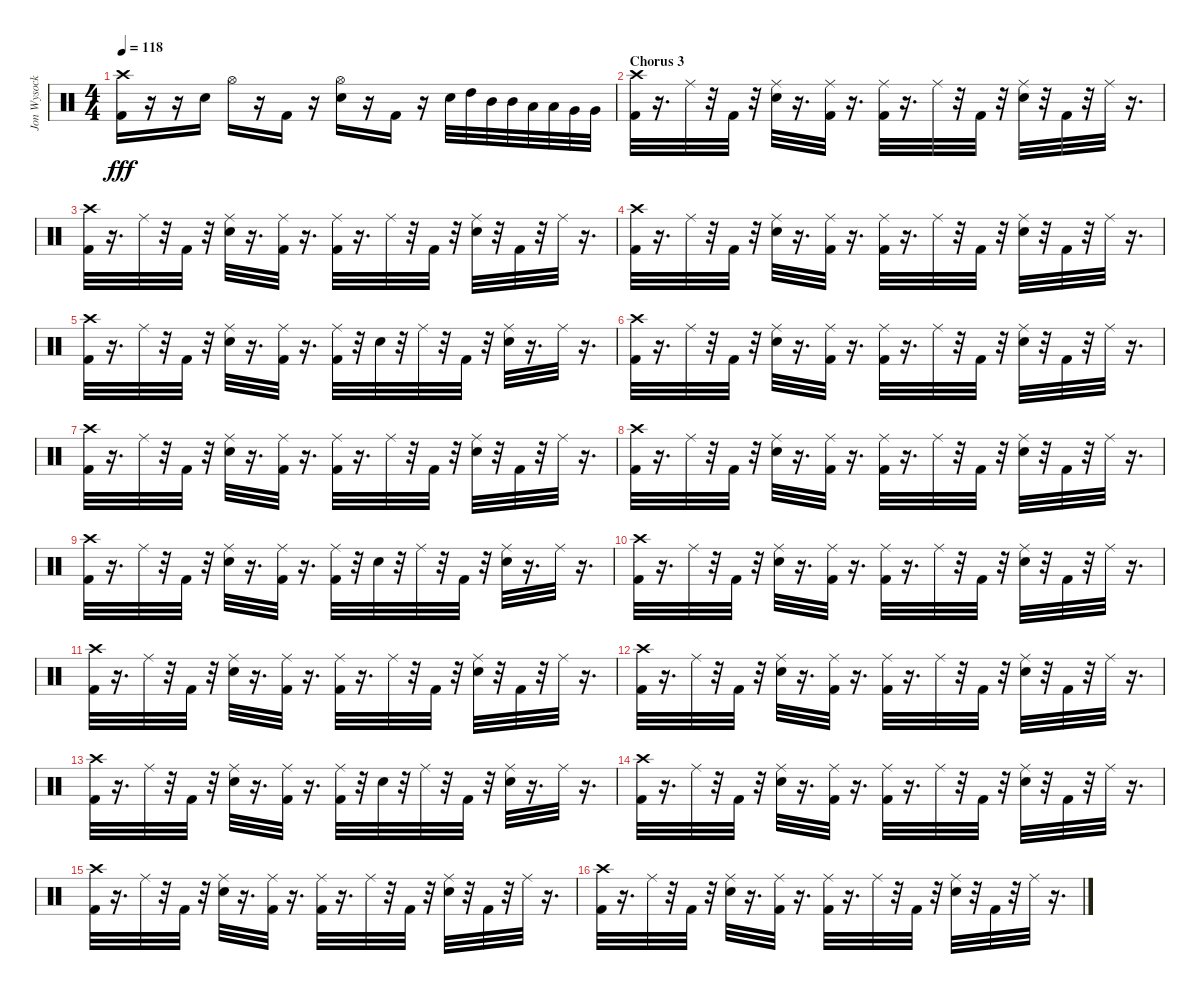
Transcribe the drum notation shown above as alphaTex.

\track ("Jon Wysocki - Drums" "Jon Wysock") {instrument percussion}
\staff {score}
\articulation defaults
\ts (4 4)
\tempo 118
\clef neutral
\ks c
("Crash high (hit)" "Kick (hit) 2").16{dy fff} r.16 r.16 "Electric Snare (hit)".16 "Hi-Hat (open)".16 r.16 "Kick (hit) 2".16 r.16 ("Hi-Hat (open)" "Electric Snare (hit)").16 r.16 "Kick (hit) 2".16 r.16 "Electric Snare (hit)".32 "High Tom (hit)".32 "Mid Tom (hit)".32 "Mid Tom (hit)".32 "Low Tom (hit)".32 "Low Tom (hit)".32 "Very Low Tom (hit)".32 "Very Low Tom (hit)".32 |
\section ("" "Chorus 3")
("Kick (hit) 2" "Crash high (hit)").32 r.16{d} "Ride (middle)".32 r.32 "Kick (hit) 2".32 r.32 ("Ride (middle)" "Electric Snare (hit)").32 r.16{d} ("Ride (middle)" "Kick (hit) 2").32 r.16{d} ("Ride (middle)" "Kick (hit) 2").32 r.16{d} "Ride (middle)".32 r.32 "Kick (hit) 2".32 r.32 ("Ride (middle)" "Electric Snare (hit)").32 r.32 "Kick (hit) 2".32 r.32 "Ride (middle)".32 r.16{d} |
("Crash high (hit)" "Kick (hit) 2").32 r.16{d} "Ride (middle)".32 r.32 "Kick (hit) 2".32 r.32 ("Electric Snare (hit)" "Ride (middle)").32 r.16{d} ("Kick (hit) 2" "Ride (middle)").32 r.16{d} ("Kick (hit) 2" "Ride (middle)").32 r.16{d} "Ride (middle)".32 r.32 "Kick (hit) 2".32 r.32 ("Electric Snare (hit)" "Ride (middle)").32 r.32 "Kick (hit) 2".32 r.32 "Ride (middle)".32 r.16{d} |
("Crash high (hit)" "Kick (hit) 2").32 r.16{d} "Ride (middle)".32 r.32 "Kick (hit) 2".32 r.32 ("Electric Snare (hit)" "Ride (middle)").32 r.16{d} ("Kick (hit) 2" "Ride (middle)").32 r.16{d} ("Kick (hit) 2" "Ride (middle)").32 r.16{d} "Ride (middle)".32 r.32 "Kick (hit) 2".32 r.32 ("Electric Snare (hit)" "Ride (middle)").32 r.32 "Kick (hit) 2".32 r.32 "Ride (middle)".32 r.16{d} |
("Crash high (hit)" "Kick (hit) 2").32 r.16{d} "Ride (middle)".32 r.32 "Kick (hit) 2".32 r.32 ("Ride (middle)" "Electric Snare (hit)").32 r.16{d} ("Ride (middle)" "Kick (hit) 2").32 r.16{d} ("Ride (middle)" "Kick (hit) 2").32 r.32 "Electric Snare (hit)".32 r.32 "Ride (middle)".32 r.32 "Kick (hit) 2".32 r.32 ("Ride (middle)" "Electric Snare (hit)").32 r.16{d} "Ride (middle)".32 r.16{d} |
("Kick (hit) 2" "Crash high (hit)").32 r.16{d} "Ride (middle)".32 r.32 "Kick (hit) 2".32 r.32 ("Ride (middle)" "Electric Snare (hit)").32 r.16{d} ("Ride (middle)" "Kick (hit) 2").32 r.16{d} ("Ride (middle)" "Kick (hit) 2").32 r.16{d} "Ride (middle)".32 r.32 "Kick (hit) 2".32 r.32 ("Ride (middle)" "Electric Snare (hit)").32 r.32 "Kick (hit) 2".32 r.32 "Ride (middle)".32 r.16{d} |
("Crash high (hit)" "Kick (hit) 2").32 r.16{d} "Ride (middle)".32 r.32 "Kick (hit) 2".32 r.32 ("Electric Snare (hit)" "Ride (middle)").32 r.16{d} ("Kick (hit) 2" "Ride (middle)").32 r.16{d} ("Kick (hit) 2" "Ride (middle)").32 r.16{d} "Ride (middle)".32 r.32 "Kick (hit) 2".32 r.32 ("Electric Snare (hit)" "Ride (middle)").32 r.32 "Kick (hit) 2".32 r.32 "Ride (middle)".32 r.16{d} |
("Crash high (hit)" "Kick (hit) 2").32 r.16{d} "Ride (middle)".32 r.32 "Kick (hit) 2".32 r.32 ("Electric Snare (hit)" "Ride (middle)").32 r.16{d} ("Kick (hit) 2" "Ride (middle)").32 r.16{d} ("Kick (hit) 2" "Ride (middle)").32 r.16{d} "Ride (middle)".32 r.32 "Kick (hit) 2".32 r.32 ("Electric Snare (hit)" "Ride (middle)").32 r.32 "Kick (hit) 2".32 r.32 "Ride (middle)".32 r.16{d} |
("Crash high (hit)" "Kick (hit) 2").32 r.16{d} "Ride (middle)".32 r.32 "Kick (hit) 2".32 r.32 ("Ride (middle)" "Electric Snare (hit)").32 r.16{d} ("Ride (middle)" "Kick (hit) 2").32 r.16{d} ("Ride (middle)" "Kick (hit) 2").32 r.32 "Electric Snare (hit)".32 r.32 "Ride (middle)".32 r.32 "Kick (hit) 2".32 r.32 ("Ride (middle)" "Electric Snare (hit)").32 r.16{d} "Ride (middle)".32 r.16{d} |
("Kick (hit) 2" "Crash high (hit)").32 r.16{d} "Ride (middle)".32 r.32 "Kick (hit) 2".32 r.32 ("Ride (middle)" "Electric Snare (hit)").32 r.16{d} ("Ride (middle)" "Kick (hit) 2").32 r.16{d} ("Ride (middle)" "Kick (hit) 2").32 r.16{d} "Ride (middle)".32 r.32 "Kick (hit) 2".32 r.32 ("Ride (middle)" "Electric Snare (hit)").32 r.32 "Kick (hit) 2".32 r.32 "Ride (middle)".32 r.16{d} |
("Crash high (hit)" "Kick (hit) 2").32 r.16{d} "Ride (middle)".32 r.32 "Kick (hit) 2".32 r.32 ("Electric Snare (hit)" "Ride (middle)").32 r.16{d} ("Kick (hit) 2" "Ride (middle)").32 r.16{d} ("Kick (hit) 2" "Ride (middle)").32 r.16{d} "Ride (middle)".32 r.32 "Kick (hit) 2".32 r.32 ("Electric Snare (hit)" "Ride (middle)").32 r.32 "Kick (hit) 2".32 r.32 "Ride (middle)".32 r.16{d} |
("Crash high (hit)" "Kick (hit) 2").32 r.16{d} "Ride (middle)".32 r.32 "Kick (hit) 2".32 r.32 ("Electric Snare (hit)" "Ride (middle)").32 r.16{d} ("Kick (hit) 2" "Ride (middle)").32 r.16{d} ("Kick (hit) 2" "Ride (middle)").32 r.16{d} "Ride (middle)".32 r.32 "Kick (hit) 2".32 r.32 ("Electric Snare (hit)" "Ride (middle)").32 r.32 "Kick (hit) 2".32 r.32 "Ride (middle)".32 r.16{d} |
("Crash high (hit)" "Kick (hit) 2").32 r.16{d} "Ride (middle)".32 r.32 "Kick (hit) 2".32 r.32 ("Ride (middle)" "Electric Snare (hit)").32 r.16{d} ("Ride (middle)" "Kick (hit) 2").32 r.16{d} ("Ride (middle)" "Kick (hit) 2").32 r.32 "Electric Snare (hit)".32 r.32 "Ride (middle)".32 r.32 "Kick (hit) 2".32 r.32 ("Ride (middle)" "Electric Snare (hit)").32 r.16{d} "Ride (middle)".32 r.16{d} |
("Kick (hit) 2" "Crash high (hit)").32 r.16{d} "Ride (middle)".32 r.32 "Kick (hit) 2".32 r.32 ("Ride (middle)" "Electric Snare (hit)").32 r.16{d} ("Ride (middle)" "Kick (hit) 2").32 r.16{d} ("Ride (middle)" "Kick (hit) 2").32 r.16{d} "Ride (middle)".32 r.32 "Kick (hit) 2".32 r.32 ("Ride (middle)" "Electric Snare (hit)").32 r.32 "Kick (hit) 2".32 r.32 "Ride (middle)".32 r.16{d} |
("Crash high (hit)" "Kick (hit) 2").32 r.16{d} "Ride (middle)".32 r.32 "Kick (hit) 2".32 r.32 ("Electric Snare (hit)" "Ride (middle)").32 r.16{d} ("Kick (hit) 2" "Ride (middle)").32 r.16{d} ("Kick (hit) 2" "Ride (middle)").32 r.16{d} "Ride (middle)".32 r.32 "Kick (hit) 2".32 r.32 ("Electric Snare (hit)" "Ride (middle)").32 r.32 "Kick (hit) 2".32 r.32 "Ride (middle)".32 r.16{d} |
("Crash high (hit)" "Kick (hit) 2").32 r.16{d} "Ride (middle)".32 r.32 "Kick (hit) 2".32 r.32 ("Electric Snare (hit)" "Ride (middle)").32 r.16{d} ("Kick (hit) 2" "Ride (middle)").32 r.16{d} ("Kick (hit) 2" "Ride (middle)").32 r.16{d} "Ride (middle)".32 r.32 "Kick (hit) 2".32 r.32 ("Electric Snare (hit)" "Ride (middle)").32 r.32 "Kick (hit) 2".32 r.32 "Ride (middle)".32 r.16{d}
